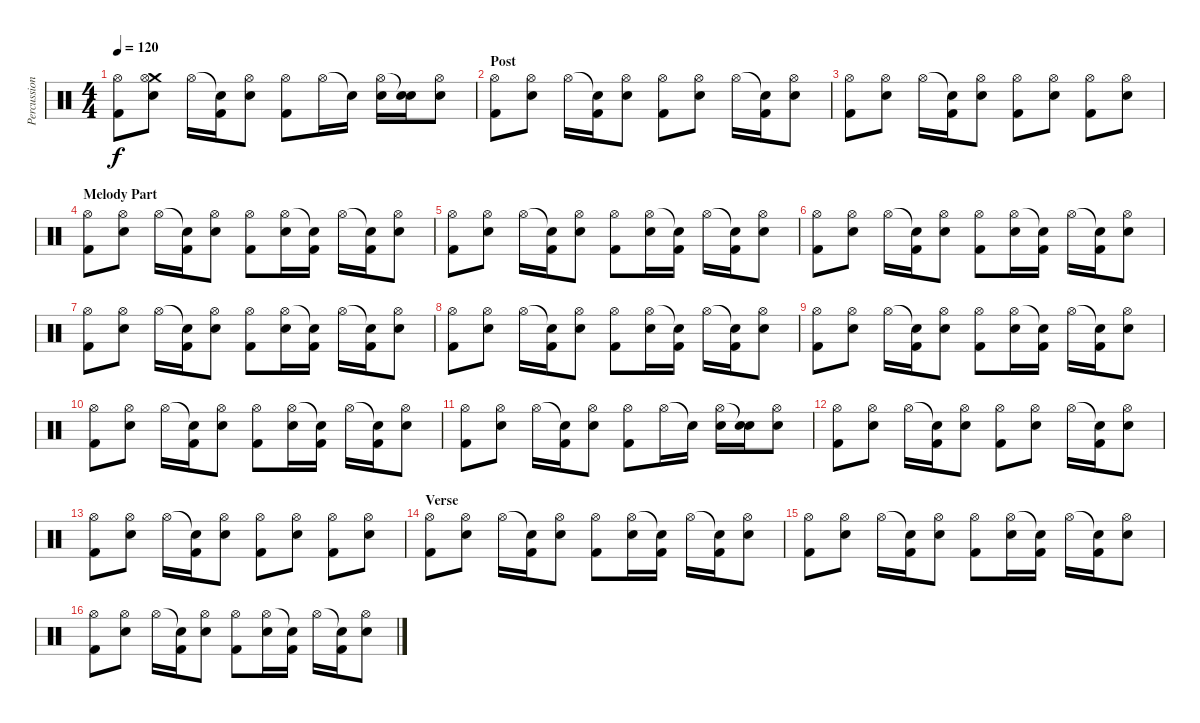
\track ("Percussion" "Percussion") {instrument percussion}
\staff {score}
\articulation defaults
\ts (4 4)
\tempo 120
\clef neutral
\ks c
("Hi-Hat (open)" "Kick (hit) 2").8{dy f} ("Crash medium (hit)" "Hi-Hat (open)" "Electric Snare (hit)").8 "Hi-Hat (open)".16 ("Snare (hit)"{t} "Kick (hit) 2").16 ("Hi-Hat (open)" "Electric Snare (hit)").8 ("Hi-Hat (open)" "Kick (hit) 2").8 "Hi-Hat (open)".16 "Snare (hit)"{t}.16 ("Hi-Hat (open)" "Electric Snare (hit)").16 ("Snare (hit)"{t} "Electric Snare (hit)").16 ("Hi-Hat (open)" "Electric Snare (hit)").8 |
\section ("" "Post")
("Hi-Hat (open)" "Kick (hit) 2").8 ("Hi-Hat (open)" "Electric Snare (hit)").8 "Hi-Hat (open)".16 ("Snare (hit)"{t} "Kick (hit) 2").16 ("Hi-Hat (open)" "Electric Snare (hit)").8 ("Hi-Hat (open)" "Kick (hit) 2").8 ("Hi-Hat (open)" "Electric Snare (hit)").8 "Hi-Hat (open)".16 ("Snare (hit)"{t} "Kick (hit) 2").16 ("Hi-Hat (open)" "Electric Snare (hit)").8 |
("Hi-Hat (open)" "Kick (hit) 2").8 ("Hi-Hat (open)" "Electric Snare (hit)").8 "Hi-Hat (open)".16 ("Snare (hit)"{t} "Kick (hit) 2").16 ("Hi-Hat (open)" "Electric Snare (hit)").8 ("Hi-Hat (open)" "Kick (hit) 2").8 ("Hi-Hat (open)" "Electric Snare (hit)").8 ("Hi-Hat (open)" "Kick (hit) 2").8 ("Hi-Hat (open)" "Electric Snare (hit)").8 |
\section ("" "Melody Part")
("Hi-Hat (open)" "Kick (hit) 2").8 ("Hi-Hat (open)" "Electric Snare (hit)").8 "Hi-Hat (open)".16 ("Snare (hit)"{t} "Kick (hit) 2").16 ("Hi-Hat (open)" "Electric Snare (hit)").8 ("Hi-Hat (open)" "Kick (hit) 2").8 ("Hi-Hat (open)" "Electric Snare (hit)").16 ("Snare (hit)"{t} "Kick (hit) 2").16 "Hi-Hat (open)".16 ("Snare (hit)"{t} "Kick (hit) 2").16 ("Hi-Hat (open)" "Electric Snare (hit)").8 |
("Hi-Hat (open)" "Kick (hit) 2").8 ("Hi-Hat (open)" "Electric Snare (hit)").8 "Hi-Hat (open)".16 ("Snare (hit)"{t} "Kick (hit) 2").16 ("Hi-Hat (open)" "Electric Snare (hit)").8 ("Hi-Hat (open)" "Kick (hit) 2").8 ("Hi-Hat (open)" "Electric Snare (hit)").16 ("Snare (hit)"{t} "Kick (hit) 2").16 "Hi-Hat (open)".16 ("Snare (hit)"{t} "Kick (hit) 2").16 ("Hi-Hat (open)" "Electric Snare (hit)").8 |
("Hi-Hat (open)" "Kick (hit) 2").8 ("Hi-Hat (open)" "Electric Snare (hit)").8 "Hi-Hat (open)".16 ("Snare (hit)"{t} "Kick (hit) 2").16 ("Hi-Hat (open)" "Electric Snare (hit)").8 ("Hi-Hat (open)" "Kick (hit) 2").8 ("Hi-Hat (open)" "Electric Snare (hit)").16 ("Snare (hit)"{t} "Kick (hit) 2").16 "Hi-Hat (open)".16 ("Snare (hit)"{t} "Kick (hit) 2").16 ("Hi-Hat (open)" "Electric Snare (hit)").8 |
("Hi-Hat (open)" "Kick (hit) 2").8 ("Hi-Hat (open)" "Electric Snare (hit)").8 "Hi-Hat (open)".16 ("Snare (hit)"{t} "Kick (hit) 2").16 ("Hi-Hat (open)" "Electric Snare (hit)").8 ("Hi-Hat (open)" "Kick (hit) 2").8 ("Hi-Hat (open)" "Electric Snare (hit)").16 ("Snare (hit)"{t} "Kick (hit) 2").16 "Hi-Hat (open)".16 ("Snare (hit)"{t} "Kick (hit) 2").16 ("Hi-Hat (open)" "Electric Snare (hit)").8 |
("Hi-Hat (open)" "Kick (hit) 2").8 ("Hi-Hat (open)" "Electric Snare (hit)").8 "Hi-Hat (open)".16 ("Snare (hit)"{t} "Kick (hit) 2").16 ("Hi-Hat (open)" "Electric Snare (hit)").8 ("Hi-Hat (open)" "Kick (hit) 2").8 ("Hi-Hat (open)" "Electric Snare (hit)").16 ("Snare (hit)"{t} "Kick (hit) 2").16 "Hi-Hat (open)".16 ("Snare (hit)"{t} "Kick (hit) 2").16 ("Hi-Hat (open)" "Electric Snare (hit)").8 |
("Hi-Hat (open)" "Kick (hit) 2").8 ("Hi-Hat (open)" "Electric Snare (hit)").8 "Hi-Hat (open)".16 ("Snare (hit)"{t} "Kick (hit) 2").16 ("Hi-Hat (open)" "Electric Snare (hit)").8 ("Hi-Hat (open)" "Kick (hit) 2").8 ("Hi-Hat (open)" "Electric Snare (hit)").16 ("Snare (hit)"{t} "Kick (hit) 2").16 "Hi-Hat (open)".16 ("Snare (hit)"{t} "Kick (hit) 2").16 ("Hi-Hat (open)" "Electric Snare (hit)").8 |
("Hi-Hat (open)" "Kick (hit) 2").8 ("Hi-Hat (open)" "Electric Snare (hit)").8 "Hi-Hat (open)".16 ("Snare (hit)"{t} "Kick (hit) 2").16 ("Hi-Hat (open)" "Electric Snare (hit)").8 ("Hi-Hat (open)" "Kick (hit) 2").8 ("Hi-Hat (open)" "Electric Snare (hit)").16 ("Snare (hit)"{t} "Kick (hit) 2").16 "Hi-Hat (open)".16 ("Snare (hit)"{t} "Kick (hit) 2").16 ("Hi-Hat (open)" "Electric Snare (hit)").8 |
("Hi-Hat (open)" "Kick (hit) 2").8 ("Hi-Hat (open)" "Electric Snare (hit)").8 "Hi-Hat (open)".16 ("Snare (hit)"{t} "Kick (hit) 2").16 ("Hi-Hat (open)" "Electric Snare (hit)").8 ("Hi-Hat (open)" "Kick (hit) 2").8 "Hi-Hat (open)".16 "Snare (hit)"{t}.16 ("Hi-Hat (open)" "Electric Snare (hit)").16 ("Snare (hit)"{t} "Electric Snare (hit)").16 ("Hi-Hat (open)" "Electric Snare (hit)").8 |
("Hi-Hat (open)" "Kick (hit) 2").8 ("Hi-Hat (open)" "Electric Snare (hit)").8 "Hi-Hat (open)".16 ("Snare (hit)"{t} "Kick (hit) 2").16 ("Hi-Hat (open)" "Electric Snare (hit)").8 ("Hi-Hat (open)" "Kick (hit) 2").8 ("Hi-Hat (open)" "Electric Snare (hit)").8 "Hi-Hat (open)".16 ("Snare (hit)"{t} "Kick (hit) 2").16 ("Hi-Hat (open)" "Electric Snare (hit)").8 |
("Hi-Hat (open)" "Kick (hit) 2").8 ("Hi-Hat (open)" "Electric Snare (hit)").8 "Hi-Hat (open)".16 ("Snare (hit)"{t} "Kick (hit) 2").16 ("Hi-Hat (open)" "Electric Snare (hit)").8 ("Hi-Hat (open)" "Kick (hit) 2").8 ("Hi-Hat (open)" "Electric Snare (hit)").8 ("Hi-Hat (open)" "Kick (hit) 2").8 ("Hi-Hat (open)" "Electric Snare (hit)").8 |
\section ("" "Verse")
("Hi-Hat (open)" "Kick (hit) 2").8 ("Hi-Hat (open)" "Electric Snare (hit)").8 "Hi-Hat (open)".16 ("Snare (hit)"{t} "Kick (hit) 2").16 ("Hi-Hat (open)" "Electric Snare (hit)").8 ("Hi-Hat (open)" "Kick (hit) 2").8 ("Hi-Hat (open)" "Electric Snare (hit)").16 ("Snare (hit)"{t} "Kick (hit) 2").16 "Hi-Hat (open)".16 ("Snare (hit)"{t} "Kick (hit) 2").16 ("Hi-Hat (open)" "Electric Snare (hit)").8 |
("Hi-Hat (open)" "Kick (hit) 2").8 ("Hi-Hat (open)" "Electric Snare (hit)").8 "Hi-Hat (open)".16 ("Snare (hit)"{t} "Kick (hit) 2").16 ("Hi-Hat (open)" "Electric Snare (hit)").8 ("Hi-Hat (open)" "Kick (hit) 2").8 ("Hi-Hat (open)" "Electric Snare (hit)").16 ("Snare (hit)"{t} "Kick (hit) 2").16 "Hi-Hat (open)".16 ("Snare (hit)"{t} "Kick (hit) 2").16 ("Hi-Hat (open)" "Electric Snare (hit)").8 |
("Hi-Hat (open)" "Kick (hit) 2").8 ("Hi-Hat (open)" "Electric Snare (hit)").8 "Hi-Hat (open)".16 ("Snare (hit)"{t} "Kick (hit) 2").16 ("Hi-Hat (open)" "Electric Snare (hit)").8 ("Hi-Hat (open)" "Kick (hit) 2").8 ("Hi-Hat (open)" "Electric Snare (hit)").16 ("Snare (hit)"{t} "Kick (hit) 2").16 "Hi-Hat (open)".16 ("Snare (hit)"{t} "Kick (hit) 2").16 ("Hi-Hat (open)" "Electric Snare (hit)").8
